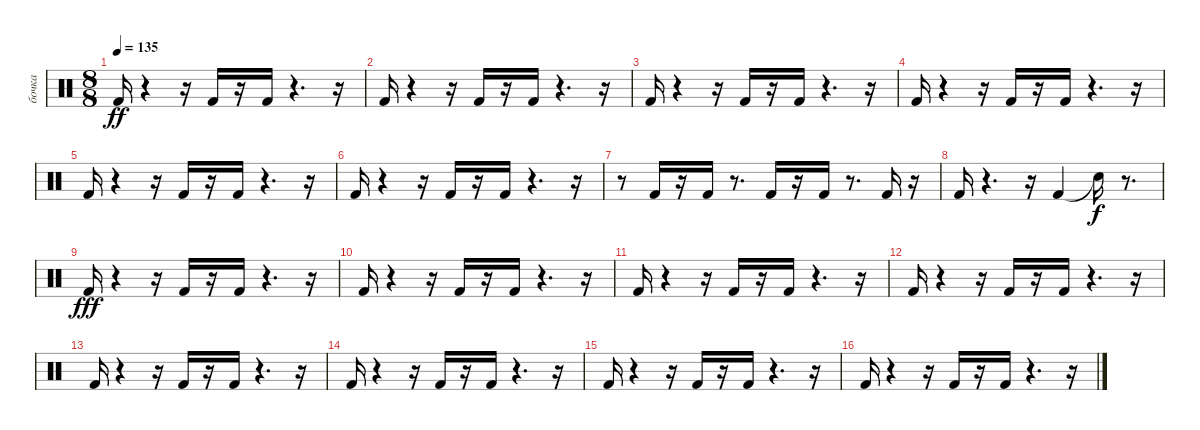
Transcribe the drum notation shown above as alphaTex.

\track ("бочка" "бочка") {instrument percussion}
\staff {score}
\articulation defaults
\ts (8 8)
\tempo 135
\clef neutral
\ks c "Kick (hit) 2".16{dy ff}
r.4 r.16 "Kick (hit) 2".16 r.16 "Kick (hit) 2".16 r.4{d} r.16 |
"Kick (hit) 2".16 r.4 r.16 "Kick (hit) 2".16 r.16 "Kick (hit) 2".16 r.4{d} r.16 |
"Kick (hit) 2".16 r.4 r.16 "Kick (hit) 2".16 r.16 "Kick (hit) 2".16 r.4{d} r.16 |
"Kick (hit) 2".16 r.4 r.16 "Kick (hit) 2".16 r.16 "Kick (hit) 2".16 r.4{d} r.16 |
"Kick (hit) 2".16 r.4 r.16 "Kick (hit) 2".16 r.16 "Kick (hit) 2".16 r.4{d} r.16 |
"Kick (hit) 2".16 r.4 r.16 "Kick (hit) 2".16 r.16 "Kick (hit) 2".16 r.4{d} r.16 |
r.8 "Kick (hit) 2".16 r.16 "Kick (hit) 2".16 r.8{d} "Kick (hit) 2".16 r.16 "Kick (hit) 2".16 r.8{d} "Kick (hit) 2".16 r.16 |
"Kick (hit) 2".16 r.4{d} r.16 "Kick (hit) 2".4 "Snare (hit)"{t}.16{dy f} r.8{d} |
"Kick (hit) 2".16{dy fff} r.4 r.16 "Kick (hit) 2".16 r.16 "Kick (hit) 2".16 r.4{d} r.16 |
"Kick (hit) 2".16 r.4 r.16 "Kick (hit) 2".16 r.16 "Kick (hit) 2".16 r.4{d} r.16 |
"Kick (hit) 2".16 r.4 r.16 "Kick (hit) 2".16 r.16 "Kick (hit) 2".16 r.4{d} r.16 |
"Kick (hit) 2".16 r.4 r.16 "Kick (hit) 2".16 r.16 "Kick (hit) 2".16 r.4{d} r.16 |
"Kick (hit) 2".16 r.4 r.16 "Kick (hit) 2".16 r.16 "Kick (hit) 2".16 r.4{d} r.16 |
"Kick (hit) 2".16 r.4 r.16 "Kick (hit) 2".16 r.16 "Kick (hit) 2".16 r.4{d} r.16 |
"Kick (hit) 2".16 r.4 r.16 "Kick (hit) 2".16 r.16 "Kick (hit) 2".16 r.4{d} r.16 |
"Kick (hit) 2".16 r.4 r.16 "Kick (hit) 2".16 r.16 "Kick (hit) 2".16 r.4{d} r.16
